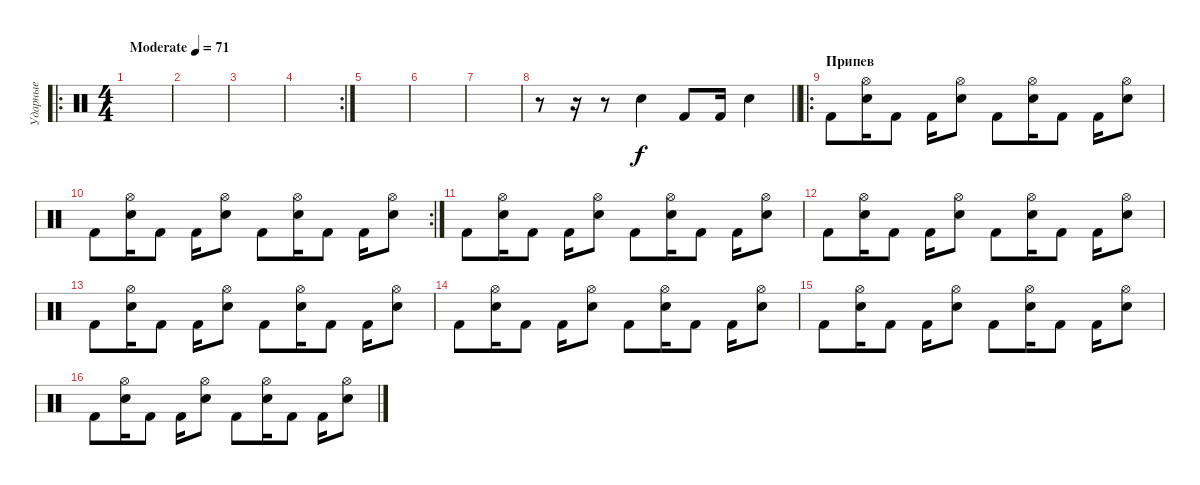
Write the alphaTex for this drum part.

\track ("Ударные" "Ударные") {instrument percussion}
\staff {score}
\articulation defaults
\ro
\ts (4 4)
\tempo (71 "Moderate")
\clef neutral
\ks c
|
|
|
\rc 2
|
|
|
|
\barLineRight lightlight
r.8 r.16 r.8 "Electric Snare (hit)".4 "Kick (hit) 2".8 "Kick (hit) 2".16 "Electric Snare (hit)".4 |
\ro
\section ("" "Припев")
"Kick (hit) 2".8 ("Electric Snare (hit)" "Hi-Hat (open)").16 "Kick (hit) 2".8 "Kick (hit) 2".16 ("Hi-Hat (open)" "Electric Snare (hit)").8 "Kick (hit) 2".8 ("Electric Snare (hit)" "Hi-Hat (open)").16 "Kick (hit) 2".8 "Kick (hit) 2".16 ("Electric Snare (hit)" "Hi-Hat (open)").8 |
\rc 2 "Kick (hit) 2".8
("Electric Snare (hit)" "Hi-Hat (open)").16 "Kick (hit) 2".8 "Kick (hit) 2".16 ("Hi-Hat (open)" "Electric Snare (hit)").8 "Kick (hit) 2".8 ("Electric Snare (hit)" "Hi-Hat (open)").16 "Kick (hit) 2".8 "Kick (hit) 2".16 ("Electric Snare (hit)" "Hi-Hat (open)").8 |
"Kick (hit) 2".8 ("Electric Snare (hit)" "Hi-Hat (open)").16 "Kick (hit) 2".8 "Kick (hit) 2".16 ("Hi-Hat (open)" "Electric Snare (hit)").8 "Kick (hit) 2".8 ("Electric Snare (hit)" "Hi-Hat (open)").16 "Kick (hit) 2".8 "Kick (hit) 2".16 ("Electric Snare (hit)" "Hi-Hat (open)").8 |
"Kick (hit) 2".8 ("Electric Snare (hit)" "Hi-Hat (open)").16 "Kick (hit) 2".8 "Kick (hit) 2".16 ("Hi-Hat (open)" "Electric Snare (hit)").8 "Kick (hit) 2".8 ("Electric Snare (hit)" "Hi-Hat (open)").16 "Kick (hit) 2".8 "Kick (hit) 2".16 ("Electric Snare (hit)" "Hi-Hat (open)").8 |
"Kick (hit) 2".8 ("Electric Snare (hit)" "Hi-Hat (open)").16 "Kick (hit) 2".8 "Kick (hit) 2".16 ("Hi-Hat (open)" "Electric Snare (hit)").8 "Kick (hit) 2".8 ("Electric Snare (hit)" "Hi-Hat (open)").16 "Kick (hit) 2".8 "Kick (hit) 2".16 ("Electric Snare (hit)" "Hi-Hat (open)").8 |
"Kick (hit) 2".8 ("Electric Snare (hit)" "Hi-Hat (open)").16 "Kick (hit) 2".8 "Kick (hit) 2".16 ("Hi-Hat (open)" "Electric Snare (hit)").8 "Kick (hit) 2".8 ("Electric Snare (hit)" "Hi-Hat (open)").16 "Kick (hit) 2".8 "Kick (hit) 2".16 ("Electric Snare (hit)" "Hi-Hat (open)").8 |
"Kick (hit) 2".8 ("Electric Snare (hit)" "Hi-Hat (open)").16 "Kick (hit) 2".8 "Kick (hit) 2".16 ("Hi-Hat (open)" "Electric Snare (hit)").8 "Kick (hit) 2".8 ("Electric Snare (hit)" "Hi-Hat (open)").16 "Kick (hit) 2".8 "Kick (hit) 2".16 ("Electric Snare (hit)" "Hi-Hat (open)").8 |
"Kick (hit) 2".8 ("Electric Snare (hit)" "Hi-Hat (open)").16 "Kick (hit) 2".8 "Kick (hit) 2".16 ("Hi-Hat (open)" "Electric Snare (hit)").8 "Kick (hit) 2".8 ("Electric Snare (hit)" "Hi-Hat (open)").16 "Kick (hit) 2".8 "Kick (hit) 2".16 ("Electric Snare (hit)" "Hi-Hat (open)").8
